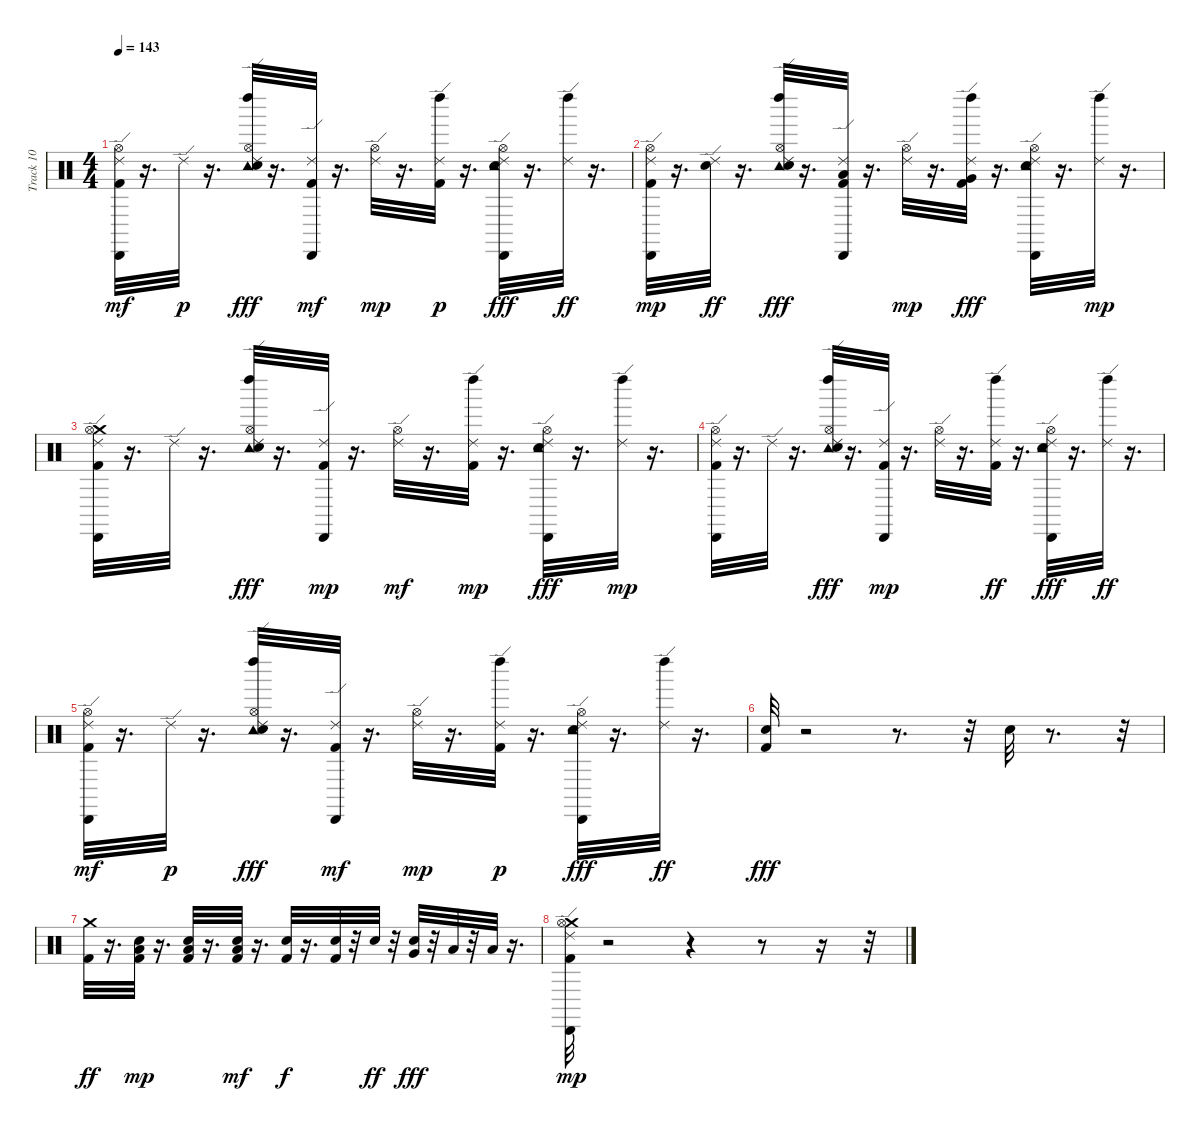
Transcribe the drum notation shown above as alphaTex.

\track ("Track 10" "Track 10") {instrument percussion}
\staff {score}
\articulation defaults
\ts (4 4)
\tempo 143
\clef neutral
\ks c
("Kick (hit) 2" "Ride (edge) 2" "Cabasa (hit)" "Hi-Hat (open)").32{dy mf} r.16{d} "Ride (edge) 2".32{dy p} r.16{d} ("Ride (edge) 2" "Tambourine (hit)" "Left Maraca (hit)" "Hi-Hat (open)" "Snare (hit) 2").32{dy fff} r.16{d} ("Kick (hit) 2" "Ride (edge) 2" "Cabasa (hit)").32{dy mf} r.16{d} ("Ride (edge) 2" "Hi-Hat (open)").32{dy mp} r.16{d} ("Kick (hit) 2" "Ride (edge) 2" "Left Maraca (hit)").32{dy p} r.16{d} ("Ride (edge) 2" "Tambourine (hit)" "Cabasa (hit)" "Hi-Hat (open)" "Snare (hit) 2").32{dy fff} r.16{d} ("Ride (edge) 2" "Left Maraca (hit)").32{dy ff} r.16{d} |
("Kick (hit) 2" "Ride (edge) 2" "Cabasa (hit)" "Hi-Hat (open)").32{dy mp} r.16{d} ("Ride (edge) 2" "Snare (hit) 2").32{dy ff} r.16{d} ("Ride (edge) 2" "Tambourine (hit)" "Left Maraca (hit)" "Hi-Hat (open)" "Snare (hit) 2").32{dy fff} r.16{d} ("Kick (hit) 2" "Ride (edge) 2" "Cabasa (hit)" "Low Tom (hit)").32 r.16{d} ("Ride (edge) 2" "Hi-Hat (open)").32{dy mp} r.16{d} ("Kick (hit) 2" "Ride (edge) 2" "Left Maraca (hit)" "Very Low Tom (hit)").32{dy fff} r.16{d} ("Ride (edge) 2" "Tambourine (hit)" "Cabasa (hit)" "Hi-Hat (open)" "Snare (hit) 2").32 r.16{d} ("Ride (edge) 2" "Left Maraca (hit)").32{dy mp} r.16{d} |
("Kick (hit) 2" "Crash medium (hit)" "Ride (edge) 2" "Cabasa (hit)" "Hi-Hat (open)").32 r.16{d} "Ride (edge) 2".32 r.16{d} ("Ride (edge) 2" "Tambourine (hit)" "Left Maraca (hit)" "Hi-Hat (open)" "Snare (hit) 2").32{dy fff} r.16{d} ("Kick (hit) 2" "Ride (edge) 2" "Cabasa (hit)").32{dy mp} r.16{d} ("Ride (edge) 2" "Hi-Hat (open)").32{dy mf} r.16{d} ("Kick (hit) 2" "Ride (edge) 2" "Left Maraca (hit)").32{dy mp} r.16{d} ("Ride (edge) 2" "Tambourine (hit)" "Cabasa (hit)" "Hi-Hat (open)" "Snare (hit) 2").32{dy fff} r.16{d} ("Ride (edge) 2" "Left Maraca (hit)").32{dy mp} r.16{d} |
("Kick (hit) 2" "Ride (edge) 2" "Cabasa (hit)" "Hi-Hat (open)").32 r.16{d} "Ride (edge) 2".32 r.16{d} ("Ride (edge) 2" "Tambourine (hit)" "Left Maraca (hit)" "Hi-Hat (open)" "Snare (hit) 2").32{dy fff} r.16{d} ("Kick (hit) 2" "Ride (edge) 2" "Cabasa (hit)").32{dy mp} r.16{d} ("Ride (edge) 2" "Hi-Hat (open)").32 r.16{d} ("Kick (hit) 2" "Ride (edge) 2" "Left Maraca (hit)").32{dy ff} r.16{d} ("Ride (edge) 2" "Tambourine (hit)" "Cabasa (hit)" "Hi-Hat (open)" "Snare (hit) 2").32{dy fff} r.16{d} ("Ride (edge) 2" "Left Maraca (hit)").32{dy ff} r.16{d} |
("Kick (hit) 2" "Ride (edge) 2" "Cabasa (hit)" "Hi-Hat (open)").32{dy mf} r.16{d} "Ride (edge) 2".32{dy p} r.16{d} ("Ride (edge) 2" "Tambourine (hit)" "Left Maraca (hit)" "Hi-Hat (open)" "Snare (hit) 2").32{dy fff} r.16{d} ("Kick (hit) 2" "Ride (edge) 2" "Cabasa (hit)").32{dy mf} r.16{d} ("Ride (edge) 2" "Hi-Hat (open)").32{dy mp} r.16{d} ("Kick (hit) 2" "Ride (edge) 2" "Left Maraca (hit)").32{dy p} r.16{d} ("Ride (edge) 2" "Tambourine (hit)" "Cabasa (hit)" "Hi-Hat (open)" "Snare (hit) 2").32{dy fff} r.16{d} ("Ride (edge) 2" "Left Maraca (hit)").32{dy ff} r.16{d} |
("Kick (hit) 2" "Snare (hit) 2").32{dy fff} r.2 r.8{d} r.32 "Snare (hit) 2".32 r.8{d} r.32 |
("Crash medium (hit)" "Kick (hit) 2").32{dy ff} r.16{d} ("Snare (hit) 2" "Kick (hit) 2" "Low Floor Tom (hit)").32{dy mp} r.16{d} ("Snare (hit) 2" "Kick (hit) 2" "Low Floor Tom (hit)").32 r.16{d} ("Snare (hit) 2" "Kick (hit) 2" "Low Floor Tom (hit)").32{dy mf} r.16{d} ("Snare (hit) 2" "Kick (hit) 2").32{dy f} r.16{d} ("Snare (hit) 2" "Kick (hit) 2").32 r.32 "Snare (hit) 2".32{dy ff} r.32 ("Very Low Tom (hit)" "Snare (hit) 2").32{dy fff} r.32 "Low Floor Tom (hit)".32 r.32 "Low Floor Tom (hit)".32 r.16{d} |
("Kick (hit) 2" "Crash medium (hit)" "Ride (edge) 2" "Cabasa (hit)" "Hi-Hat (open)").32{dy mp} r.2 r.4 r.8 r.16 r.32
